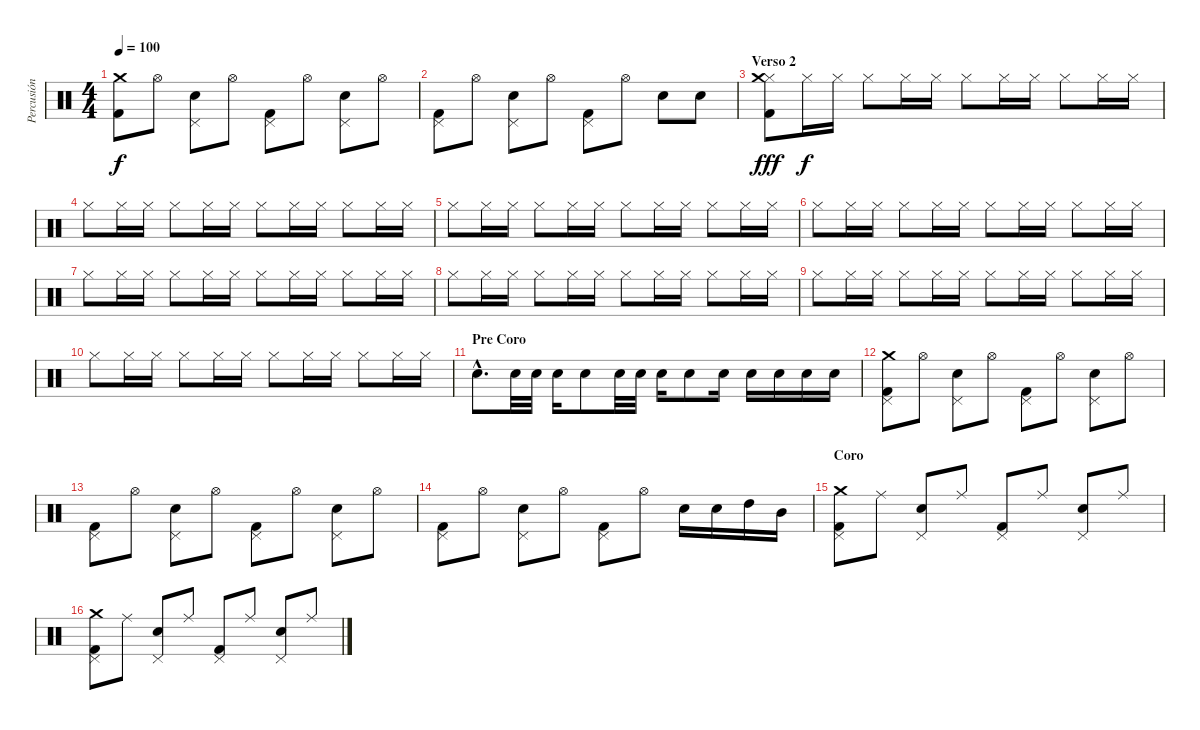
\track ("Percusión" "Percusión") {instrument percussion}
\staff {score}
\articulation defaults
\ts (4 4)
\tempo 100
\clef neutral
\ks c
("Crash medium (hit)" "Kick (hit) 2").8{dy f} "Hi-Hat (open)".8 ("Electric Snare (hit)" "Pedal Hi-Hat (hit)").8 "Hi-Hat (open)".8 ("Pedal Hi-Hat (hit)" "Kick (hit) 2").8 "Hi-Hat (open)".8 ("Electric Snare (hit)" "Pedal Hi-Hat (hit)").8 "Hi-Hat (open)".8 |
("Pedal Hi-Hat (hit)" "Kick (hit) 2").8 "Hi-Hat (open)".8 ("Electric Snare (hit)" "Pedal Hi-Hat (hit)").8 "Hi-Hat (open)".8 ("Pedal Hi-Hat (hit)" "Kick (hit) 2").8 "Hi-Hat (open)".8 "Electric Snare (hit)".8 "Electric Snare (hit)".8 |
\section ("" "Verso 2")
("Hi-Hat (closed)" "Kick (hit) 2" "Crash medium (hit)").8{dy fff volume 9} "Hi-Hat (closed)".16{dy f} "Hi-Hat (closed)".16 "Hi-Hat (closed)".8 "Hi-Hat (closed)".16 "Hi-Hat (closed)".16 "Hi-Hat (closed)".8 "Hi-Hat (closed)".16 "Hi-Hat (closed)".16 "Hi-Hat (closed)".8 "Hi-Hat (closed)".16 "Hi-Hat (closed)".16 |
"Hi-Hat (closed)".8{volume 9} "Hi-Hat (closed)".16 "Hi-Hat (closed)".16 "Hi-Hat (closed)".8 "Hi-Hat (closed)".16 "Hi-Hat (closed)".16 "Hi-Hat (closed)".8 "Hi-Hat (closed)".16 "Hi-Hat (closed)".16 "Hi-Hat (closed)".8 "Hi-Hat (closed)".16 "Hi-Hat (closed)".16 |
"Hi-Hat (closed)".8{volume 9} "Hi-Hat (closed)".16 "Hi-Hat (closed)".16 "Hi-Hat (closed)".8 "Hi-Hat (closed)".16 "Hi-Hat (closed)".16 "Hi-Hat (closed)".8 "Hi-Hat (closed)".16 "Hi-Hat (closed)".16 "Hi-Hat (closed)".8 "Hi-Hat (closed)".16 "Hi-Hat (closed)".16 |
"Hi-Hat (closed)".8{volume 9} "Hi-Hat (closed)".16 "Hi-Hat (closed)".16 "Hi-Hat (closed)".8 "Hi-Hat (closed)".16 "Hi-Hat (closed)".16 "Hi-Hat (closed)".8 "Hi-Hat (closed)".16 "Hi-Hat (closed)".16 "Hi-Hat (closed)".8 "Hi-Hat (closed)".16 "Hi-Hat (closed)".16 |
"Hi-Hat (closed)".8{volume 9} "Hi-Hat (closed)".16 "Hi-Hat (closed)".16 "Hi-Hat (closed)".8 "Hi-Hat (closed)".16 "Hi-Hat (closed)".16 "Hi-Hat (closed)".8 "Hi-Hat (closed)".16 "Hi-Hat (closed)".16 "Hi-Hat (closed)".8 "Hi-Hat (closed)".16 "Hi-Hat (closed)".16 |
"Hi-Hat (closed)".8{volume 9} "Hi-Hat (closed)".16 "Hi-Hat (closed)".16 "Hi-Hat (closed)".8 "Hi-Hat (closed)".16 "Hi-Hat (closed)".16 "Hi-Hat (closed)".8 "Hi-Hat (closed)".16 "Hi-Hat (closed)".16 "Hi-Hat (closed)".8 "Hi-Hat (closed)".16 "Hi-Hat (closed)".16 |
"Hi-Hat (closed)".8{volume 9} "Hi-Hat (closed)".16 "Hi-Hat (closed)".16 "Hi-Hat (closed)".8 "Hi-Hat (closed)".16 "Hi-Hat (closed)".16 "Hi-Hat (closed)".8 "Hi-Hat (closed)".16 "Hi-Hat (closed)".16 "Hi-Hat (closed)".8 "Hi-Hat (closed)".16 "Hi-Hat (closed)".16 |
"Hi-Hat (closed)".8{volume 9} "Hi-Hat (closed)".16 "Hi-Hat (closed)".16 "Hi-Hat (closed)".8 "Hi-Hat (closed)".16 "Hi-Hat (closed)".16 "Hi-Hat (closed)".8 "Hi-Hat (closed)".16 "Hi-Hat (closed)".16 "Hi-Hat (closed)".8 "Hi-Hat (closed)".16 "Hi-Hat (closed)".16 |
\section ("" "Pre Coro")
"Electric Snare (hit)"{hac}.8{d volume 16} "Electric Snare (hit)".32 "Electric Snare (hit)".32 "Electric Snare (hit)".16 "Electric Snare (hit)".8 "Electric Snare (hit)".32 "Electric Snare (hit)".32 "Electric Snare (hit)".16 "Electric Snare (hit)".8 "Electric Snare (hit)".16 "Electric Snare (hit)".16 "Electric Snare (hit)".16 "Electric Snare (hit)".16 "Electric Snare (hit)".16 |
("Crash medium (hit)" "Pedal Hi-Hat (hit)" "Kick (hit) 2").8 "Hi-Hat (open)".8 ("Electric Snare (hit)" "Pedal Hi-Hat (hit)").8 "Hi-Hat (open)".8 ("Pedal Hi-Hat (hit)" "Kick (hit) 2").8 "Hi-Hat (open)".8 ("Electric Snare (hit)" "Pedal Hi-Hat (hit)").8 "Hi-Hat (open)".8 |
("Pedal Hi-Hat (hit)" "Kick (hit) 2").8 "Hi-Hat (open)".8 ("Electric Snare (hit)" "Pedal Hi-Hat (hit)").8 "Hi-Hat (open)".8 ("Pedal Hi-Hat (hit)" "Kick (hit) 2").8 "Hi-Hat (open)".8 ("Electric Snare (hit)" "Pedal Hi-Hat (hit)").8 "Hi-Hat (open)".8 |
("Pedal Hi-Hat (hit)" "Kick (hit) 2").8 "Hi-Hat (open)".8 ("Electric Snare (hit)" "Pedal Hi-Hat (hit)").8 "Hi-Hat (open)".8 ("Pedal Hi-Hat (hit)" "Kick (hit) 2").8 "Hi-Hat (open)".8 "Electric Snare (hit)".16 "Electric Snare (hit)".16 "High Tom (hit)".16 "Mid Tom (hit)".16 |
\section ("" "Coro")
("Crash medium (hit)" "Kick (hit) 2" "Pedal Hi-Hat (hit)").8 "Ride (middle)".8 ("Pedal Hi-Hat (hit)" "Electric Snare (hit)").8 "Ride (middle)".8 ("Pedal Hi-Hat (hit)" "Kick (hit) 2").8 "Ride (middle)".8 ("Pedal Hi-Hat (hit)" "Electric Snare (hit)").8 "Ride (middle)".8 |
("Crash medium (hit)" "Kick (hit) 2" "Pedal Hi-Hat (hit)").8 "Ride (middle)".8 ("Pedal Hi-Hat (hit)" "Electric Snare (hit)").8 "Ride (middle)".8 ("Pedal Hi-Hat (hit)" "Kick (hit) 2").8 "Ride (middle)".8 ("Pedal Hi-Hat (hit)" "Electric Snare (hit)").8 "Ride (middle)".8
